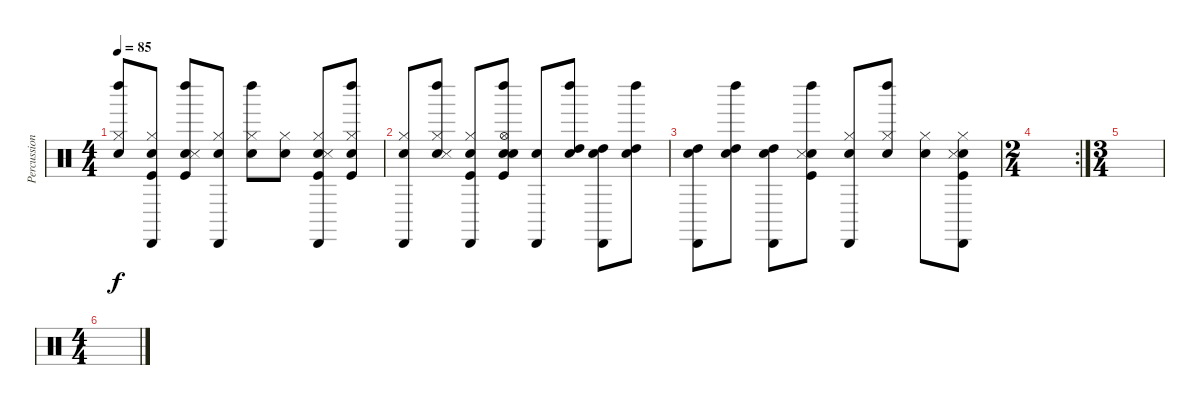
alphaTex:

\track ("Percussions" "Percussion") {instrument percussion}
\staff {score}
\articulation defaults
\ts (4 4)
\tempo 85
\clef neutral
\ks c
("Snare (hit)" "Hi-Hat (closed)" "Left Maraca (hit)").8{dy f} ("Snare (hit)" "Kick (hit)" "Hi-Hat (closed)" "Cabasa (hit)").8 ("Snare (hit)" "Kick (hit)" "Snare (side stick) 3" "Left Maraca (hit)").8 ("Snare (hit)" "Hi-Hat (closed)" "Cabasa (hit)").8 ("Snare (hit)" "Hi-Hat (closed)" "Left Maraca (hit)").8 ("Snare (hit)" "Hi-Hat (closed)").8 ("Snare (hit)" "Kick (hit)" "Hi-Hat (closed)" "Snare (side stick) 3" "Cabasa (hit)").8 ("Snare (hit)" "Kick (hit)" "Hi-Hat (closed)" "Left Maraca (hit)").8 |
("Snare (hit)" "Hi-Hat (closed)" "Cabasa (hit)").8 ("Snare (hit)" "Hi-Hat (closed)" "Snare (side stick) 3" "Left Maraca (hit)").8 ("Snare (hit)" "Kick (hit)" "Hi-Hat (closed)" "Cabasa (hit)").8 ("Snare (hit)" "Kick (hit)" "Snare (hit) 2" "Hi-Hat (open)" "Left Maraca (hit)").8 ("Snare (hit)" "Cabasa (hit)").8 ("Snare (hit)" "High Tom (hit)" "Left Maraca (hit)").8 ("Snare (hit)" "High Tom (hit)" "Cabasa (hit)").8 ("Snare (hit)" "High Tom (hit)" "Left Maraca (hit)").8 |
("Snare (hit)" "High Tom (hit)" "Cabasa (hit)").8 ("Snare (hit)" "High Tom (hit)" "Left Maraca (hit)").8 ("Snare (hit)" "High Tom (hit)" "Cabasa (hit)").8 ("Snare (hit)" "Kick (hit)" "Snare (side stick) 3" "Left Maraca (hit)").8 ("Snare (hit)" "Hi-Hat (closed)" "Cabasa (hit)").8 ("Snare (hit)" "Hi-Hat (closed)" "Left Maraca (hit)").8 ("Snare (hit)" "Hi-Hat (closed)").8 ("Snare (hit)" "Kick (hit)" "Hi-Hat (closed)" "Snare (side stick) 3" "Cabasa (hit)").8 |
\rc 2
\ts (2 4)
|
\ts (3 4)
|
\ts (4 4)
